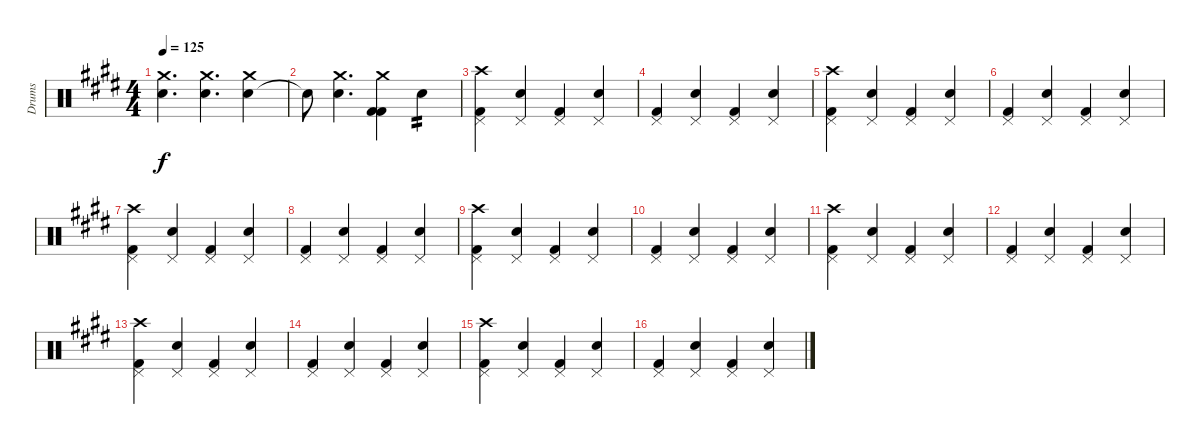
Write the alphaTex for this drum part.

\track ("Drums" "Drums") {instrument percussion}
\staff {score}
\articulation defaults
\ts (4 4)
\tempo 125
\clef neutral
\ks e
("Snare (hit) 2" "Crash medium (hit)").4{d dy f} ("Snare (hit) 2" "Crash medium (hit)").4{d} ("Snare (hit) 2" "Crash medium (hit)").4 |
"Snare (hit)"{t}.8 ("Snare (hit) 2" "Crash medium (hit)").4{d} ("Kick (hit) 2" "Kick (hit) 2" "Crash medium (hit)").4 "Snare (hit) 2".4{tp 2} |
("Kick (hit) 2" "Pedal Hi-Hat (hit)" "Crash high (hit)").4 ("Snare (hit) 2" "Pedal Hi-Hat (hit)").4 ("Kick (hit) 2" "Pedal Hi-Hat (hit)").4 ("Snare (hit) 2" "Pedal Hi-Hat (hit)").4 |
("Kick (hit) 2" "Pedal Hi-Hat (hit)").4 ("Snare (hit) 2" "Pedal Hi-Hat (hit)").4 ("Kick (hit) 2" "Pedal Hi-Hat (hit)").4 ("Snare (hit) 2" "Pedal Hi-Hat (hit)").4 |
("Kick (hit) 2" "Pedal Hi-Hat (hit)" "Crash high (hit)").4 ("Snare (hit) 2" "Pedal Hi-Hat (hit)").4 ("Kick (hit) 2" "Pedal Hi-Hat (hit)").4 ("Snare (hit) 2" "Pedal Hi-Hat (hit)").4 |
("Kick (hit) 2" "Pedal Hi-Hat (hit)").4 ("Snare (hit) 2" "Pedal Hi-Hat (hit)").4 ("Kick (hit) 2" "Pedal Hi-Hat (hit)").4 ("Snare (hit) 2" "Pedal Hi-Hat (hit)").4 |
("Kick (hit) 2" "Pedal Hi-Hat (hit)" "Crash high (hit)").4 ("Snare (hit) 2" "Pedal Hi-Hat (hit)").4 ("Kick (hit) 2" "Pedal Hi-Hat (hit)").4 ("Snare (hit) 2" "Pedal Hi-Hat (hit)").4 |
("Kick (hit) 2" "Pedal Hi-Hat (hit)").4 ("Snare (hit) 2" "Pedal Hi-Hat (hit)").4 ("Kick (hit) 2" "Pedal Hi-Hat (hit)").4 ("Snare (hit) 2" "Pedal Hi-Hat (hit)").4 |
("Kick (hit) 2" "Pedal Hi-Hat (hit)" "Crash high (hit)").4 ("Snare (hit) 2" "Pedal Hi-Hat (hit)").4 ("Kick (hit) 2" "Pedal Hi-Hat (hit)").4 ("Snare (hit) 2" "Pedal Hi-Hat (hit)").4 |
("Kick (hit) 2" "Pedal Hi-Hat (hit)").4 ("Snare (hit) 2" "Pedal Hi-Hat (hit)").4 ("Kick (hit) 2" "Pedal Hi-Hat (hit)").4 ("Snare (hit) 2" "Pedal Hi-Hat (hit)").4 |
("Kick (hit) 2" "Pedal Hi-Hat (hit)" "Crash high (hit)").4 ("Snare (hit) 2" "Pedal Hi-Hat (hit)").4 ("Kick (hit) 2" "Pedal Hi-Hat (hit)").4 ("Snare (hit) 2" "Pedal Hi-Hat (hit)").4 |
("Kick (hit) 2" "Pedal Hi-Hat (hit)").4 ("Snare (hit) 2" "Pedal Hi-Hat (hit)").4 ("Kick (hit) 2" "Pedal Hi-Hat (hit)").4 ("Snare (hit) 2" "Pedal Hi-Hat (hit)").4 |
("Kick (hit) 2" "Pedal Hi-Hat (hit)" "Crash high (hit)").4 ("Snare (hit) 2" "Pedal Hi-Hat (hit)").4 ("Kick (hit) 2" "Pedal Hi-Hat (hit)").4 ("Snare (hit) 2" "Pedal Hi-Hat (hit)").4 |
("Kick (hit) 2" "Pedal Hi-Hat (hit)").4 ("Snare (hit) 2" "Pedal Hi-Hat (hit)").4 ("Kick (hit) 2" "Pedal Hi-Hat (hit)").4 ("Snare (hit) 2" "Pedal Hi-Hat (hit)").4 |
("Kick (hit) 2" "Pedal Hi-Hat (hit)" "Crash high (hit)").4 ("Snare (hit) 2" "Pedal Hi-Hat (hit)").4 ("Kick (hit) 2" "Pedal Hi-Hat (hit)").4 ("Snare (hit) 2" "Pedal Hi-Hat (hit)").4 |
("Kick (hit) 2" "Pedal Hi-Hat (hit)").4 ("Snare (hit) 2" "Pedal Hi-Hat (hit)").4 ("Kick (hit) 2" "Pedal Hi-Hat (hit)").4 ("Snare (hit) 2" "Pedal Hi-Hat (hit)").4
